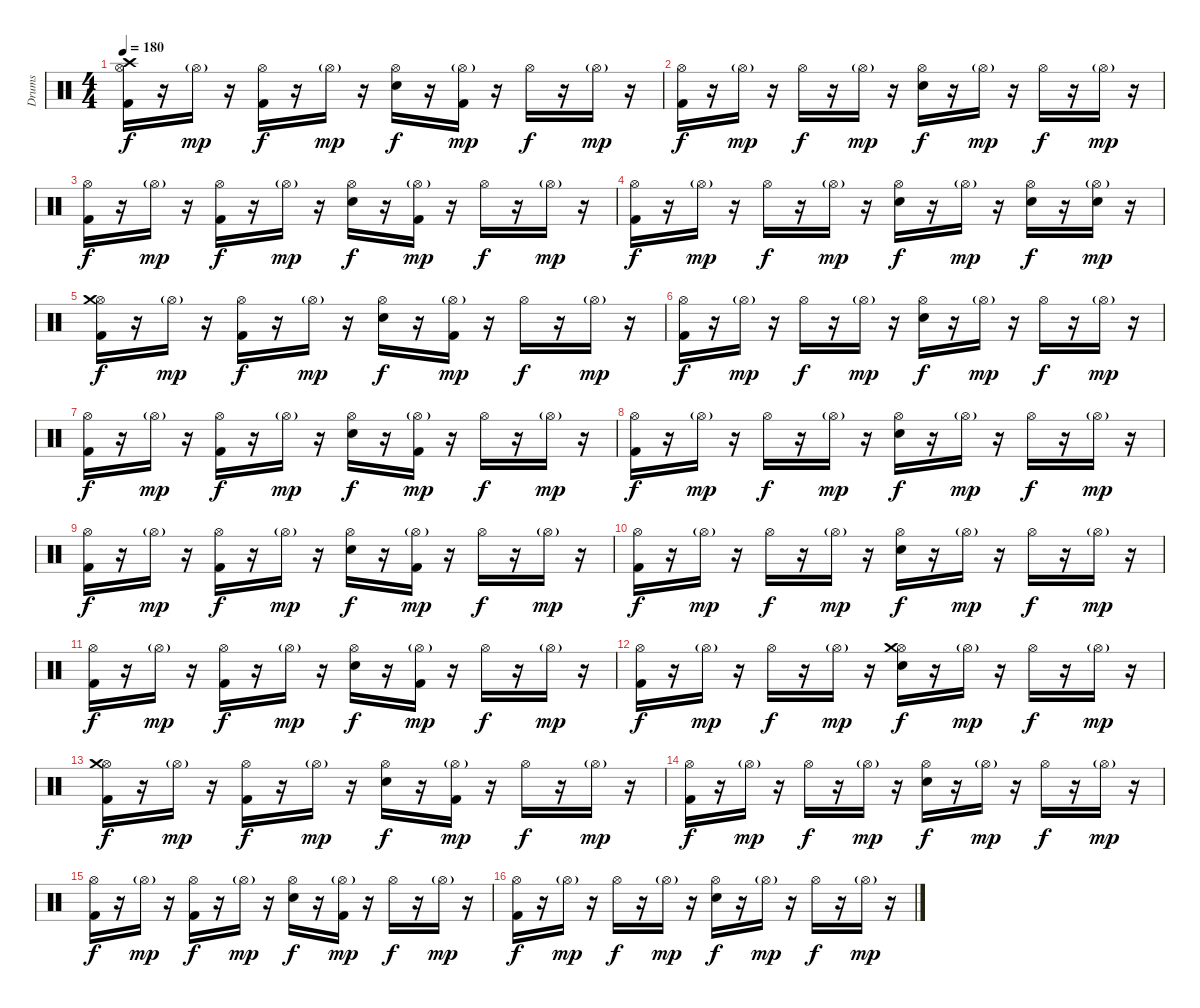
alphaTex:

\track ("Drums" "Drums") {instrument percussion}
\staff {score}
\articulation defaults
\ts (4 4)
\tempo 180
\clef neutral
\ks c
("Hi-Hat (open)" "Crash high (hit)" "Kick (hit) 2").16{dy f} r.16 "Hi-Hat (open)"{g}.16{dy mp} r.16 ("Hi-Hat (open)" "Kick (hit) 2").16{dy f} r.16 "Hi-Hat (open)"{g}.16{dy mp} r.16 ("Hi-Hat (open)" "Electric Snare (hit)").16{dy f} r.16 ("Hi-Hat (open)"{g} "Kick (hit) 2").16{dy mp} r.16 "Hi-Hat (open)".16{dy f} r.16 "Hi-Hat (open)"{g}.16{dy mp} r.16 |
("Hi-Hat (open)" "Kick (hit) 2").16{dy f} r.16 "Hi-Hat (open)"{g}.16{dy mp} r.16 "Hi-Hat (open)".16{dy f} r.16 "Hi-Hat (open)"{g}.16{dy mp} r.16 ("Hi-Hat (open)" "Electric Snare (hit)").16{dy f} r.16 "Hi-Hat (open)"{g}.16{dy mp} r.16 "Hi-Hat (open)".16{dy f} r.16 "Hi-Hat (open)"{g}.16{dy mp} r.16 |
("Hi-Hat (open)" "Kick (hit) 2").16{dy f} r.16 "Hi-Hat (open)"{g}.16{dy mp} r.16 ("Hi-Hat (open)" "Kick (hit) 2").16{dy f} r.16 "Hi-Hat (open)"{g}.16{dy mp} r.16 ("Hi-Hat (open)" "Electric Snare (hit)").16{dy f} r.16 ("Hi-Hat (open)"{g} "Kick (hit) 2").16{dy mp} r.16 "Hi-Hat (open)".16{dy f} r.16 "Hi-Hat (open)"{g}.16{dy mp} r.16 |
("Hi-Hat (open)" "Kick (hit) 2").16{dy f} r.16 "Hi-Hat (open)"{g}.16{dy mp} r.16 "Hi-Hat (open)".16{dy f} r.16 "Hi-Hat (open)"{g}.16{dy mp} r.16 ("Hi-Hat (open)" "Electric Snare (hit)").16{dy f} r.16 "Hi-Hat (open)"{g}.16{dy mp} r.16 ("Hi-Hat (open)" "Electric Snare (hit)").16{dy f} r.16 ("Hi-Hat (open)"{g} "Electric Snare (hit)").16{dy mp} r.16 |
("Hi-Hat (open)" "Crash medium (hit)" "Kick (hit) 2").16{dy f} r.16 "Hi-Hat (open)"{g}.16{dy mp} r.16 ("Hi-Hat (open)" "Kick (hit) 2").16{dy f} r.16 "Hi-Hat (open)"{g}.16{dy mp} r.16 ("Hi-Hat (open)" "Electric Snare (hit)").16{dy f} r.16 ("Hi-Hat (open)"{g} "Kick (hit) 2").16{dy mp} r.16 "Hi-Hat (open)".16{dy f} r.16 "Hi-Hat (open)"{g}.16{dy mp} r.16 |
("Hi-Hat (open)" "Kick (hit) 2").16{dy f} r.16 "Hi-Hat (open)"{g}.16{dy mp} r.16 "Hi-Hat (open)".16{dy f} r.16 "Hi-Hat (open)"{g}.16{dy mp} r.16 ("Hi-Hat (open)" "Electric Snare (hit)").16{dy f} r.16 "Hi-Hat (open)"{g}.16{dy mp} r.16 "Hi-Hat (open)".16{dy f} r.16 "Hi-Hat (open)"{g}.16{dy mp} r.16 |
("Hi-Hat (open)" "Kick (hit) 2").16{dy f} r.16 "Hi-Hat (open)"{g}.16{dy mp} r.16 ("Hi-Hat (open)" "Kick (hit) 2").16{dy f} r.16 "Hi-Hat (open)"{g}.16{dy mp} r.16 ("Hi-Hat (open)" "Electric Snare (hit)").16{dy f} r.16 ("Hi-Hat (open)"{g} "Kick (hit) 2").16{dy mp} r.16 "Hi-Hat (open)".16{dy f} r.16 "Hi-Hat (open)"{g}.16{dy mp} r.16 |
("Hi-Hat (open)" "Kick (hit) 2").16{dy f} r.16 "Hi-Hat (open)"{g}.16{dy mp} r.16 "Hi-Hat (open)".16{dy f} r.16 "Hi-Hat (open)"{g}.16{dy mp} r.16 ("Hi-Hat (open)" "Electric Snare (hit)").16{dy f} r.16 "Hi-Hat (open)"{g}.16{dy mp} r.16 "Hi-Hat (open)".16{dy f} r.16 "Hi-Hat (open)"{g}.16{dy mp} r.16 |
("Hi-Hat (open)" "Kick (hit) 2").16{dy f} r.16 "Hi-Hat (open)"{g}.16{dy mp} r.16 ("Hi-Hat (open)" "Kick (hit) 2").16{dy f} r.16 "Hi-Hat (open)"{g}.16{dy mp} r.16 ("Hi-Hat (open)" "Electric Snare (hit)").16{dy f} r.16 ("Hi-Hat (open)"{g} "Kick (hit) 2").16{dy mp} r.16 "Hi-Hat (open)".16{dy f} r.16 "Hi-Hat (open)"{g}.16{dy mp} r.16 |
("Hi-Hat (open)" "Kick (hit) 2").16{dy f} r.16 "Hi-Hat (open)"{g}.16{dy mp} r.16 "Hi-Hat (open)".16{dy f} r.16 "Hi-Hat (open)"{g}.16{dy mp} r.16 ("Hi-Hat (open)" "Electric Snare (hit)").16{dy f} r.16 "Hi-Hat (open)"{g}.16{dy mp} r.16 "Hi-Hat (open)".16{dy f} r.16 "Hi-Hat (open)"{g}.16{dy mp} r.16 |
("Hi-Hat (open)" "Kick (hit) 2").16{dy f} r.16 "Hi-Hat (open)"{g}.16{dy mp} r.16 ("Hi-Hat (open)" "Kick (hit) 2").16{dy f} r.16 "Hi-Hat (open)"{g}.16{dy mp} r.16 ("Hi-Hat (open)" "Electric Snare (hit)").16{dy f} r.16 ("Hi-Hat (open)"{g} "Kick (hit) 2").16{dy mp} r.16 "Hi-Hat (open)".16{dy f} r.16 "Hi-Hat (open)"{g}.16{dy mp} r.16 |
("Hi-Hat (open)" "Kick (hit) 2").16{dy f} r.16 "Hi-Hat (open)"{g}.16{dy mp} r.16 "Hi-Hat (open)".16{dy f} r.16 "Hi-Hat (open)"{g}.16{dy mp} r.16 ("Hi-Hat (open)" "Electric Snare (hit)" "Crash medium (hit)").16{dy f} r.16 "Hi-Hat (open)"{g}.16{dy mp} r.16 "Hi-Hat (open)".16{dy f} r.16 "Hi-Hat (open)"{g}.16{dy mp} r.16 |
("Hi-Hat (open)" "Crash medium (hit)" "Kick (hit) 2").16{dy f} r.16 "Hi-Hat (open)"{g}.16{dy mp} r.16 ("Hi-Hat (open)" "Kick (hit) 2").16{dy f} r.16 "Hi-Hat (open)"{g}.16{dy mp} r.16 ("Hi-Hat (open)" "Electric Snare (hit)").16{dy f} r.16 ("Hi-Hat (open)"{g} "Kick (hit) 2").16{dy mp} r.16 "Hi-Hat (open)".16{dy f} r.16 "Hi-Hat (open)"{g}.16{dy mp} r.16 |
("Hi-Hat (open)" "Kick (hit) 2").16{dy f} r.16 "Hi-Hat (open)"{g}.16{dy mp} r.16 "Hi-Hat (open)".16{dy f} r.16 "Hi-Hat (open)"{g}.16{dy mp} r.16 ("Hi-Hat (open)" "Electric Snare (hit)").16{dy f} r.16 "Hi-Hat (open)"{g}.16{dy mp} r.16 "Hi-Hat (open)".16{dy f} r.16 "Hi-Hat (open)"{g}.16{dy mp} r.16 |
("Hi-Hat (open)" "Kick (hit) 2").16{dy f} r.16 "Hi-Hat (open)"{g}.16{dy mp} r.16 ("Hi-Hat (open)" "Kick (hit) 2").16{dy f} r.16 "Hi-Hat (open)"{g}.16{dy mp} r.16 ("Hi-Hat (open)" "Electric Snare (hit)").16{dy f} r.16 ("Hi-Hat (open)"{g} "Kick (hit) 2").16{dy mp} r.16 "Hi-Hat (open)".16{dy f} r.16 "Hi-Hat (open)"{g}.16{dy mp} r.16 |
("Hi-Hat (open)" "Kick (hit) 2").16{dy f} r.16 "Hi-Hat (open)"{g}.16{dy mp} r.16 "Hi-Hat (open)".16{dy f} r.16 "Hi-Hat (open)"{g}.16{dy mp} r.16 ("Hi-Hat (open)" "Electric Snare (hit)").16{dy f} r.16 "Hi-Hat (open)"{g}.16{dy mp} r.16 "Hi-Hat (open)".16{dy f} r.16 "Hi-Hat (open)"{g}.16{dy mp} r.16
